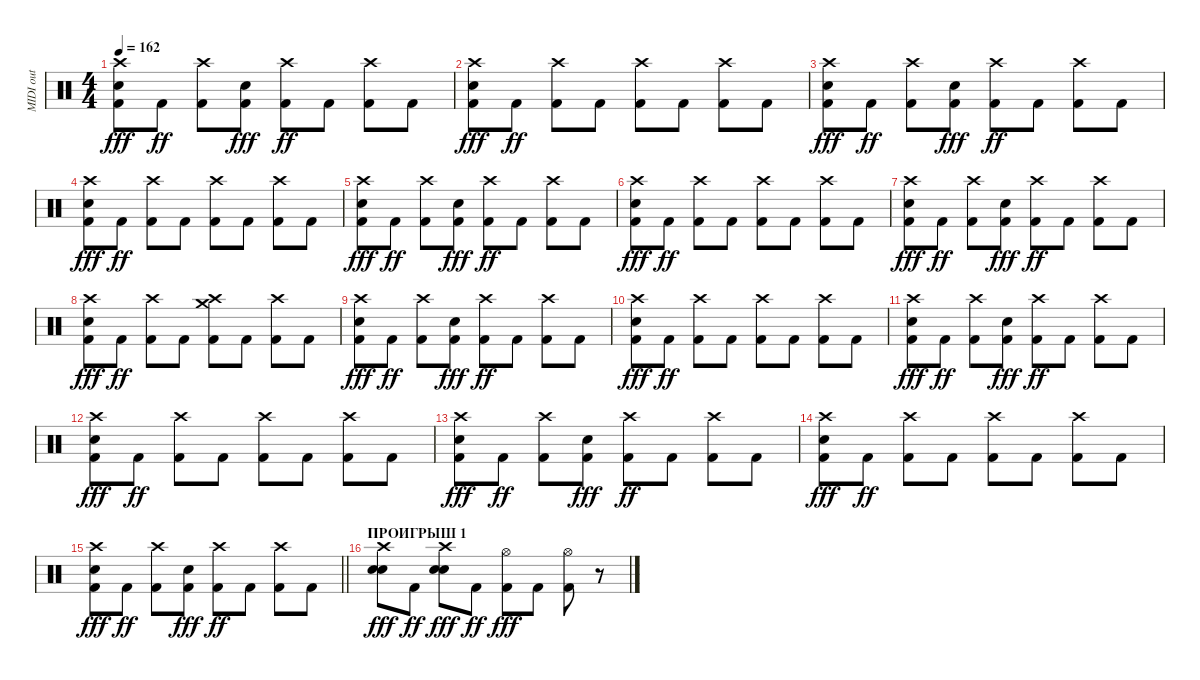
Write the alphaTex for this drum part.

\track ("MIDI out" "MIDI out") {instrument percussion}
\staff {score}
\articulation defaults
\ts (4 4)
\tempo 162
\clef neutral
\ks c
("Crash high (hit)" "Kick (hit) 2" "Snare (hit) 2").8{dy fff} "Kick (hit) 2".8{dy ff} ("Kick (hit) 2" "Crash high (hit)").8 ("Kick (hit) 2" "Snare (hit) 2").8{dy fff} ("Kick (hit) 2" "Crash high (hit)").8{dy ff} "Kick (hit) 2".8 ("Kick (hit) 2" "Crash high (hit)").8 "Kick (hit) 2".8 |
("Kick (hit) 2" "Crash high (hit)" "Snare (hit) 2").8{dy fff} "Kick (hit) 2".8{dy ff} ("Kick (hit) 2" "Crash high (hit)").8 "Kick (hit) 2".8 ("Crash high (hit)" "Kick (hit) 2").8 "Kick (hit) 2".8 ("Kick (hit) 2" "Crash high (hit)").8 "Kick (hit) 2".8 |
("Crash high (hit)" "Kick (hit) 2" "Snare (hit) 2").8{dy fff} "Kick (hit) 2".8{dy ff} ("Kick (hit) 2" "Crash high (hit)").8 ("Kick (hit) 2" "Snare (hit) 2").8{dy fff} ("Kick (hit) 2" "Crash high (hit)").8{dy ff} "Kick (hit) 2".8 ("Kick (hit) 2" "Crash high (hit)").8 "Kick (hit) 2".8 |
("Kick (hit) 2" "Crash high (hit)" "Snare (hit) 2").8{dy fff} "Kick (hit) 2".8{dy ff} ("Kick (hit) 2" "Crash high (hit)").8 "Kick (hit) 2".8 ("Crash high (hit)" "Kick (hit) 2").8 "Kick (hit) 2".8 ("Kick (hit) 2" "Crash high (hit)").8 "Kick (hit) 2".8 |
("Crash high (hit)" "Kick (hit) 2" "Snare (hit) 2").8{dy fff} "Kick (hit) 2".8{dy ff} ("Kick (hit) 2" "Crash high (hit)").8 ("Kick (hit) 2" "Snare (hit) 2").8{dy fff} ("Kick (hit) 2" "Crash high (hit)").8{dy ff} "Kick (hit) 2".8 ("Kick (hit) 2" "Crash high (hit)").8 "Kick (hit) 2".8 |
("Kick (hit) 2" "Crash high (hit)" "Snare (hit) 2").8{dy fff} "Kick (hit) 2".8{dy ff} ("Kick (hit) 2" "Crash high (hit)").8 "Kick (hit) 2".8 ("Crash high (hit)" "Kick (hit) 2").8 "Kick (hit) 2".8 ("Kick (hit) 2" "Crash high (hit)").8 "Kick (hit) 2".8 |
("Crash high (hit)" "Kick (hit) 2" "Snare (hit) 2").8{dy fff} "Kick (hit) 2".8{dy ff} ("Kick (hit) 2" "Crash high (hit)").8 ("Kick (hit) 2" "Snare (hit) 2").8{dy fff} ("Kick (hit) 2" "Crash high (hit)").8{dy ff} "Kick (hit) 2".8 ("Kick (hit) 2" "Crash high (hit)").8 "Kick (hit) 2".8 |
("Kick (hit) 2" "Crash high (hit)" "Snare (hit) 2").8{dy fff} "Kick (hit) 2".8{dy ff} ("Kick (hit) 2" "Crash high (hit)").8 "Kick (hit) 2".8 ("Crash high (hit)" "Kick (hit) 2" "Crash medium (hit)").8 "Kick (hit) 2".8 ("Kick (hit) 2" "Crash high (hit)").8 "Kick (hit) 2".8 |
("Crash high (hit)" "Kick (hit) 2" "Snare (hit) 2").8{dy fff} "Kick (hit) 2".8{dy ff} ("Kick (hit) 2" "Crash high (hit)").8 ("Kick (hit) 2" "Snare (hit) 2").8{dy fff} ("Kick (hit) 2" "Crash high (hit)").8{dy ff} "Kick (hit) 2".8 ("Kick (hit) 2" "Crash high (hit)").8 "Kick (hit) 2".8 |
("Kick (hit) 2" "Crash high (hit)" "Snare (hit) 2").8{dy fff} "Kick (hit) 2".8{dy ff} ("Kick (hit) 2" "Crash high (hit)").8 "Kick (hit) 2".8 ("Crash high (hit)" "Kick (hit) 2").8 "Kick (hit) 2".8 ("Kick (hit) 2" "Crash high (hit)").8 "Kick (hit) 2".8 |
("Crash high (hit)" "Kick (hit) 2" "Snare (hit) 2").8{dy fff} "Kick (hit) 2".8{dy ff} ("Kick (hit) 2" "Crash high (hit)").8 ("Kick (hit) 2" "Snare (hit) 2").8{dy fff} ("Kick (hit) 2" "Crash high (hit)").8{dy ff} "Kick (hit) 2".8 ("Kick (hit) 2" "Crash high (hit)").8 "Kick (hit) 2".8 |
("Kick (hit) 2" "Crash high (hit)" "Snare (hit) 2").8{dy fff} "Kick (hit) 2".8{dy ff} ("Kick (hit) 2" "Crash high (hit)").8 "Kick (hit) 2".8 ("Crash high (hit)" "Kick (hit) 2").8 "Kick (hit) 2".8 ("Kick (hit) 2" "Crash high (hit)").8 "Kick (hit) 2".8 |
("Crash high (hit)" "Kick (hit) 2" "Snare (hit) 2").8{dy fff} "Kick (hit) 2".8{dy ff} ("Kick (hit) 2" "Crash high (hit)").8 ("Kick (hit) 2" "Snare (hit) 2").8{dy fff} ("Kick (hit) 2" "Crash high (hit)").8{dy ff} "Kick (hit) 2".8 ("Kick (hit) 2" "Crash high (hit)").8 "Kick (hit) 2".8 |
("Kick (hit) 2" "Crash high (hit)" "Snare (hit) 2").8{dy fff} "Kick (hit) 2".8{dy ff} ("Kick (hit) 2" "Crash high (hit)").8 "Kick (hit) 2".8 ("Crash high (hit)" "Kick (hit) 2").8 "Kick (hit) 2".8 ("Kick (hit) 2" "Crash high (hit)").8 "Kick (hit) 2".8 |
\barLineRight lightlight
("Crash high (hit)" "Kick (hit) 2" "Snare (hit) 2").8{dy fff} "Kick (hit) 2".8{dy ff} ("Kick (hit) 2" "Crash high (hit)").8 ("Kick (hit) 2" "Snare (hit) 2").8{dy fff} ("Kick (hit) 2" "Crash high (hit)").8{dy ff} "Kick (hit) 2".8 ("Kick (hit) 2" "Crash high (hit)").8 "Kick (hit) 2".8 |
\section ("" "ПРОИГРЫШ 1")
("Electric Snare (hit)" "Crash high (hit)" "Snare (hit) 2").8{dy fff} "Kick (hit) 2".8{dy ff} ("Electric Snare (hit)" "Snare (hit) 2" "Crash high (hit)").8{dy fff} "Kick (hit) 2".8{dy ff} ("Kick (hit) 2" "Hi-Hat (open)").8{dy fff} "Kick (hit) 2".8 ("Hi-Hat (open)" "Kick (hit) 2").8 r.8
